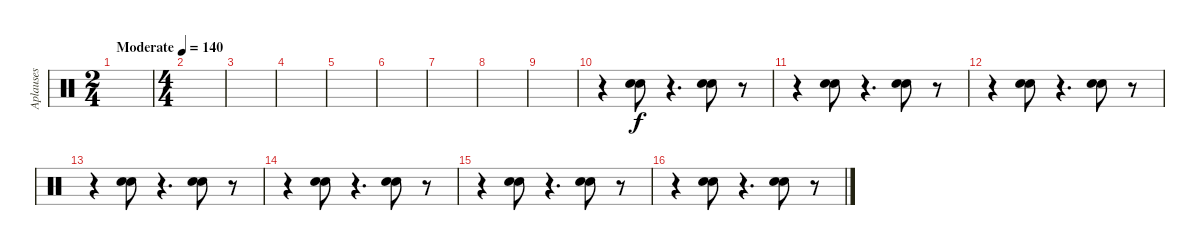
\track ("Aplauses" "Aplauses") {instrument percussion}
\staff {score}
\articulation defaults
\ts (2 4)
\tempo (140 "Moderate")
\clef neutral
\ks c
|
\ts (4 4)
|
|
|
|
|
|
|
|
r.4 ("Hand Clap (hit)" "Hand Clap (hit)").8 r.4{d} ("Hand Clap (hit)" "Hand Clap (hit)").8 r.8 |
r.4 ("Hand Clap (hit)" "Hand Clap (hit)").8 r.4{d} ("Hand Clap (hit)" "Hand Clap (hit)").8 r.8 |
r.4 ("Hand Clap (hit)" "Hand Clap (hit)").8 r.4{d} ("Hand Clap (hit)" "Hand Clap (hit)").8 r.8 |
r.4 ("Hand Clap (hit)" "Hand Clap (hit)").8 r.4{d} ("Hand Clap (hit)" "Hand Clap (hit)").8 r.8 |
r.4 ("Hand Clap (hit)" "Hand Clap (hit)").8 r.4{d} ("Hand Clap (hit)" "Hand Clap (hit)").8 r.8 |
r.4 ("Hand Clap (hit)" "Hand Clap (hit)").8 r.4{d} ("Hand Clap (hit)" "Hand Clap (hit)").8 r.8 |
r.4 ("Hand Clap (hit)" "Hand Clap (hit)").8 r.4{d} ("Hand Clap (hit)" "Hand Clap (hit)").8 r.8
